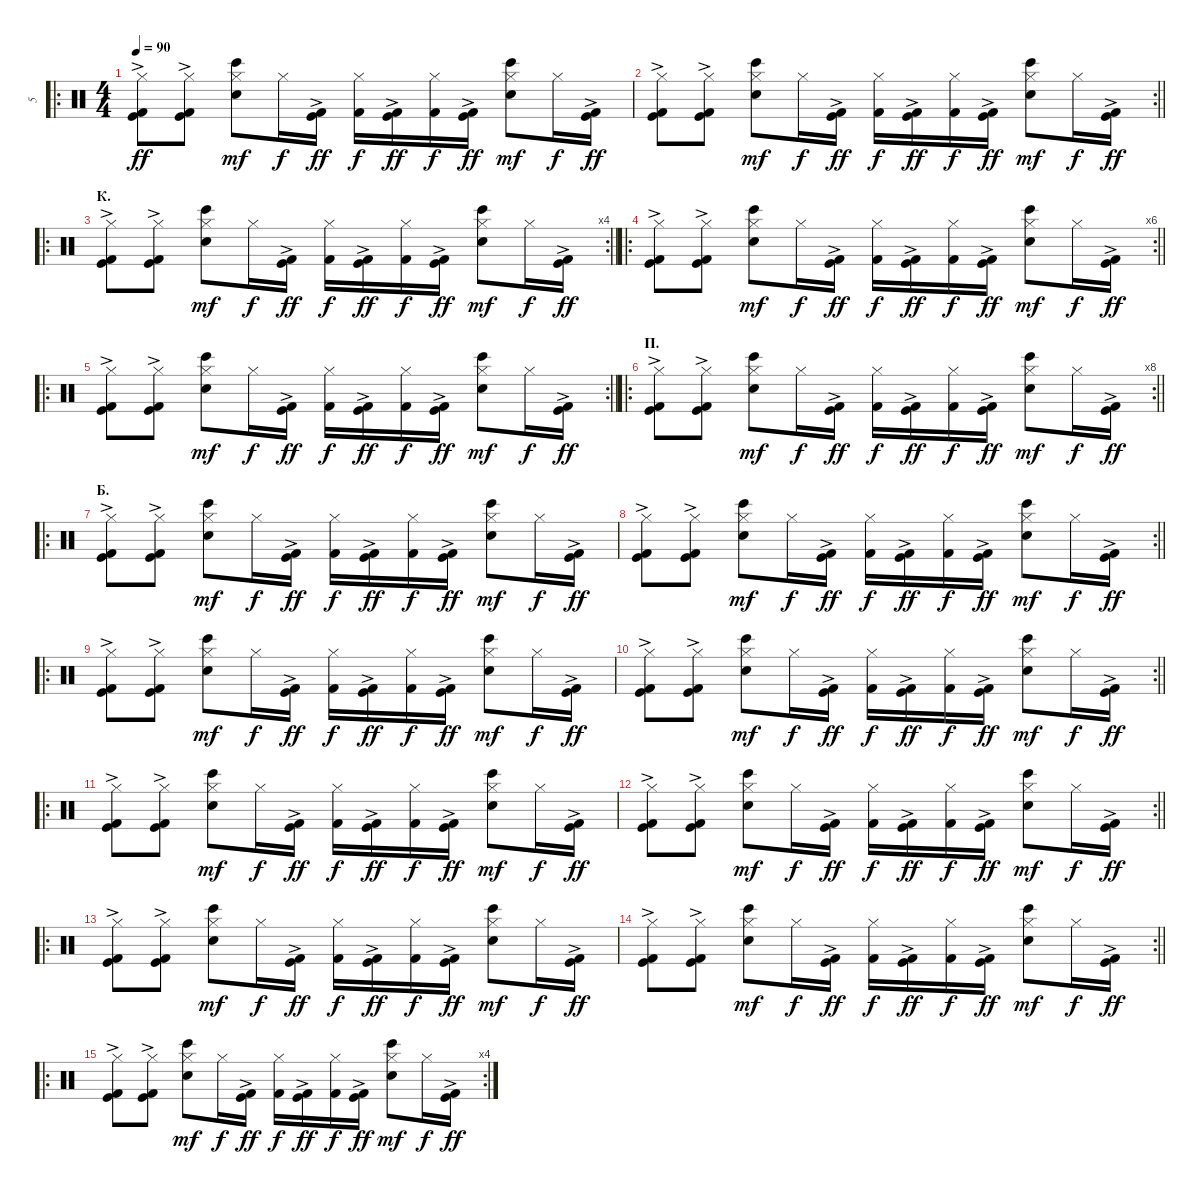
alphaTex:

\track ("5" "5") {instrument percussion}
\staff {score}
\articulation defaults
\ro
\ts (4 4)
\tempo 90
\clef neutral
\ks c
("Kick (hit) 2"{ac} "Kick (hit)"{ac} "Hi-Hat (closed)").8{dy ff} ("Kick (hit) 2"{ac} "Kick (hit)"{ac} "Hi-Hat (closed)").8 ("Snare (hit) 2" "Hi-Hat (closed)" "Bongo High (hit)").8{dy mf} "Hi-Hat (closed)".16{dy f} ("Kick (hit) 2"{ac} "Kick (hit)"{ac}).16{dy ff} ("Kick (hit) 2" "Hi-Hat (closed)").16{dy f} ("Kick (hit) 2"{ac} "Kick (hit)"{ac}).16{dy ff} ("Kick (hit) 2" "Hi-Hat (closed)").16{dy f} ("Kick (hit) 2"{ac} "Kick (hit)"{ac}).16{dy ff} ("Snare (hit) 2" "Hi-Hat (closed)" "Bongo High (hit)").8{dy mf} "Hi-Hat (closed)".16{dy f} ("Kick (hit) 2"{ac} "Kick (hit)"{ac}).16{dy ff} |
\rc 2
\barLineRight lightlight
("Kick (hit) 2"{ac} "Kick (hit)"{ac} "Hi-Hat (closed)").8 ("Kick (hit) 2"{ac} "Kick (hit)"{ac} "Hi-Hat (closed)").8 ("Snare (hit) 2" "Hi-Hat (closed)" "Bongo High (hit)").8{dy mf} "Hi-Hat (closed)".16{dy f} ("Kick (hit) 2"{ac} "Kick (hit)"{ac}).16{dy ff} ("Kick (hit) 2" "Hi-Hat (closed)").16{dy f} ("Kick (hit) 2"{ac} "Kick (hit)"{ac}).16{dy ff} ("Kick (hit) 2" "Hi-Hat (closed)").16{dy f} ("Kick (hit) 2"{ac} "Kick (hit)"{ac}).16{dy ff} ("Snare (hit) 2" "Hi-Hat (closed)" "Bongo High (hit)").8{dy mf} "Hi-Hat (closed)".16{dy f} ("Kick (hit) 2"{ac} "Kick (hit)"{ac}).16{dy ff} |
\ro
\rc 4
\section ("" "К.")
\barLineRight lightlight
("Kick (hit) 2"{ac} "Kick (hit)"{ac} "Hi-Hat (closed)").8 ("Kick (hit) 2"{ac} "Kick (hit)"{ac} "Hi-Hat (closed)").8 ("Snare (hit) 2" "Hi-Hat (closed)" "Bongo High (hit)").8{dy mf} "Hi-Hat (closed)".16{dy f} ("Kick (hit) 2"{ac} "Kick (hit)"{ac}).16{dy ff} ("Kick (hit) 2" "Hi-Hat (closed)").16{dy f} ("Kick (hit) 2"{ac} "Kick (hit)"{ac}).16{dy ff} ("Kick (hit) 2" "Hi-Hat (closed)").16{dy f} ("Kick (hit) 2"{ac} "Kick (hit)"{ac}).16{dy ff} ("Snare (hit) 2" "Hi-Hat (closed)" "Bongo High (hit)").8{dy mf} "Hi-Hat (closed)".16{dy f} ("Kick (hit) 2"{ac} "Kick (hit)"{ac}).16{dy ff} |
\ro
\rc 6
\barLineRight lightlight
("Kick (hit) 2"{ac} "Kick (hit)"{ac} "Hi-Hat (closed)").8 ("Kick (hit) 2"{ac} "Kick (hit)"{ac} "Hi-Hat (closed)").8 ("Snare (hit) 2" "Hi-Hat (closed)" "Bongo High (hit)").8{dy mf} "Hi-Hat (closed)".16{dy f} ("Kick (hit) 2"{ac} "Kick (hit)"{ac}).16{dy ff} ("Kick (hit) 2" "Hi-Hat (closed)").16{dy f} ("Kick (hit) 2"{ac} "Kick (hit)"{ac}).16{dy ff} ("Kick (hit) 2" "Hi-Hat (closed)").16{dy f} ("Kick (hit) 2"{ac} "Kick (hit)"{ac}).16{dy ff} ("Snare (hit) 2" "Hi-Hat (closed)" "Bongo High (hit)").8{dy mf} "Hi-Hat (closed)".16{dy f} ("Kick (hit) 2"{ac} "Kick (hit)"{ac}).16{dy ff} |
\ro
\rc 2
\barLineRight lightlight
("Kick (hit) 2"{ac} "Kick (hit)"{ac} "Hi-Hat (closed)").8 ("Kick (hit) 2"{ac} "Kick (hit)"{ac} "Hi-Hat (closed)").8 ("Snare (hit) 2" "Hi-Hat (closed)" "Bongo High (hit)").8{dy mf} "Hi-Hat (closed)".16{dy f} ("Kick (hit) 2"{ac} "Kick (hit)"{ac}).16{dy ff} ("Kick (hit) 2" "Hi-Hat (closed)").16{dy f} ("Kick (hit) 2"{ac} "Kick (hit)"{ac}).16{dy ff} ("Kick (hit) 2" "Hi-Hat (closed)").16{dy f} ("Kick (hit) 2"{ac} "Kick (hit)"{ac}).16{dy ff} ("Snare (hit) 2" "Hi-Hat (closed)" "Bongo High (hit)").8{dy mf} "Hi-Hat (closed)".16{dy f} ("Kick (hit) 2"{ac} "Kick (hit)"{ac}).16{dy ff} |
\ro
\rc 8
\section ("" "П.")
\barLineRight lightlight
("Kick (hit) 2"{ac} "Kick (hit)"{ac} "Hi-Hat (closed)").8 ("Kick (hit) 2"{ac} "Kick (hit)"{ac} "Hi-Hat (closed)").8 ("Snare (hit) 2" "Hi-Hat (closed)" "Bongo High (hit)").8{dy mf} "Hi-Hat (closed)".16{dy f} ("Kick (hit) 2"{ac} "Kick (hit)"{ac}).16{dy ff} ("Kick (hit) 2" "Hi-Hat (closed)").16{dy f} ("Kick (hit) 2"{ac} "Kick (hit)"{ac}).16{dy ff} ("Kick (hit) 2" "Hi-Hat (closed)").16{dy f} ("Kick (hit) 2"{ac} "Kick (hit)"{ac}).16{dy ff} ("Snare (hit) 2" "Hi-Hat (closed)" "Bongo High (hit)").8{dy mf} "Hi-Hat (closed)".16{dy f} ("Kick (hit) 2"{ac} "Kick (hit)"{ac}).16{dy ff} |
\ro
\section ("" "Б.")
("Kick (hit) 2"{ac} "Kick (hit)"{ac} "Hi-Hat (closed)").8 ("Kick (hit) 2"{ac} "Kick (hit)"{ac} "Hi-Hat (closed)").8 ("Snare (hit) 2" "Hi-Hat (closed)" "Bongo High (hit)").8{dy mf} "Hi-Hat (closed)".16{dy f} ("Kick (hit) 2"{ac} "Kick (hit)"{ac}).16{dy ff} ("Kick (hit) 2" "Hi-Hat (closed)").16{dy f} ("Kick (hit) 2"{ac} "Kick (hit)"{ac}).16{dy ff} ("Kick (hit) 2" "Hi-Hat (closed)").16{dy f} ("Kick (hit) 2"{ac} "Kick (hit)"{ac}).16{dy ff} ("Snare (hit) 2" "Hi-Hat (closed)" "Bongo High (hit)").8{dy mf} "Hi-Hat (closed)".16{dy f} ("Kick (hit) 2"{ac} "Kick (hit)"{ac}).16{dy ff} |
\rc 2
\barLineRight lightlight
("Kick (hit) 2"{ac} "Kick (hit)"{ac} "Hi-Hat (closed)").8 ("Kick (hit) 2"{ac} "Kick (hit)"{ac} "Hi-Hat (closed)").8 ("Snare (hit) 2" "Hi-Hat (closed)" "Bongo High (hit)").8{dy mf} "Hi-Hat (closed)".16{dy f} ("Kick (hit) 2"{ac} "Kick (hit)"{ac}).16{dy ff} ("Kick (hit) 2" "Hi-Hat (closed)").16{dy f} ("Kick (hit) 2"{ac} "Kick (hit)"{ac}).16{dy ff} ("Kick (hit) 2" "Hi-Hat (closed)").16{dy f} ("Kick (hit) 2"{ac} "Kick (hit)"{ac}).16{dy ff} ("Snare (hit) 2" "Hi-Hat (closed)" "Bongo High (hit)").8{dy mf} "Hi-Hat (closed)".16{dy f} ("Kick (hit) 2"{ac} "Kick (hit)"{ac}).16{dy ff} |
\ro
("Kick (hit) 2"{ac} "Kick (hit)"{ac} "Hi-Hat (closed)").8 ("Kick (hit) 2"{ac} "Kick (hit)"{ac} "Hi-Hat (closed)").8 ("Snare (hit) 2" "Hi-Hat (closed)" "Bongo High (hit)").8{dy mf} "Hi-Hat (closed)".16{dy f} ("Kick (hit) 2"{ac} "Kick (hit)"{ac}).16{dy ff} ("Kick (hit) 2" "Hi-Hat (closed)").16{dy f} ("Kick (hit) 2"{ac} "Kick (hit)"{ac}).16{dy ff} ("Kick (hit) 2" "Hi-Hat (closed)").16{dy f} ("Kick (hit) 2"{ac} "Kick (hit)"{ac}).16{dy ff} ("Snare (hit) 2" "Hi-Hat (closed)" "Bongo High (hit)").8{dy mf} "Hi-Hat (closed)".16{dy f} ("Kick (hit) 2"{ac} "Kick (hit)"{ac}).16{dy ff} |
\rc 2
\barLineRight lightlight
("Kick (hit) 2"{ac} "Kick (hit)"{ac} "Hi-Hat (closed)").8 ("Kick (hit) 2"{ac} "Kick (hit)"{ac} "Hi-Hat (closed)").8 ("Snare (hit) 2" "Hi-Hat (closed)" "Bongo High (hit)").8{dy mf} "Hi-Hat (closed)".16{dy f} ("Kick (hit) 2"{ac} "Kick (hit)"{ac}).16{dy ff} ("Kick (hit) 2" "Hi-Hat (closed)").16{dy f} ("Kick (hit) 2"{ac} "Kick (hit)"{ac}).16{dy ff} ("Kick (hit) 2" "Hi-Hat (closed)").16{dy f} ("Kick (hit) 2"{ac} "Kick (hit)"{ac}).16{dy ff} ("Snare (hit) 2" "Hi-Hat (closed)" "Bongo High (hit)").8{dy mf} "Hi-Hat (closed)".16{dy f} ("Kick (hit) 2"{ac} "Kick (hit)"{ac}).16{dy ff} |
\ro
("Kick (hit) 2"{ac} "Kick (hit)"{ac} "Hi-Hat (closed)").8 ("Kick (hit) 2"{ac} "Kick (hit)"{ac} "Hi-Hat (closed)").8 ("Snare (hit) 2" "Hi-Hat (closed)" "Bongo High (hit)").8{dy mf} "Hi-Hat (closed)".16{dy f} ("Kick (hit) 2"{ac} "Kick (hit)"{ac}).16{dy ff} ("Kick (hit) 2" "Hi-Hat (closed)").16{dy f} ("Kick (hit) 2"{ac} "Kick (hit)"{ac}).16{dy ff} ("Kick (hit) 2" "Hi-Hat (closed)").16{dy f} ("Kick (hit) 2"{ac} "Kick (hit)"{ac}).16{dy ff} ("Snare (hit) 2" "Hi-Hat (closed)" "Bongo High (hit)").8{dy mf} "Hi-Hat (closed)".16{dy f} ("Kick (hit) 2"{ac} "Kick (hit)"{ac}).16{dy ff} |
\rc 2
\barLineRight lightlight
("Kick (hit) 2"{ac} "Kick (hit)"{ac} "Hi-Hat (closed)").8 ("Kick (hit) 2"{ac} "Kick (hit)"{ac} "Hi-Hat (closed)").8 ("Snare (hit) 2" "Hi-Hat (closed)" "Bongo High (hit)").8{dy mf} "Hi-Hat (closed)".16{dy f} ("Kick (hit) 2"{ac} "Kick (hit)"{ac}).16{dy ff} ("Kick (hit) 2" "Hi-Hat (closed)").16{dy f} ("Kick (hit) 2"{ac} "Kick (hit)"{ac}).16{dy ff} ("Kick (hit) 2" "Hi-Hat (closed)").16{dy f} ("Kick (hit) 2"{ac} "Kick (hit)"{ac}).16{dy ff} ("Snare (hit) 2" "Hi-Hat (closed)" "Bongo High (hit)").8{dy mf} "Hi-Hat (closed)".16{dy f} ("Kick (hit) 2"{ac} "Kick (hit)"{ac}).16{dy ff} |
\ro
("Kick (hit) 2"{ac} "Kick (hit)"{ac} "Hi-Hat (closed)").8 ("Kick (hit) 2"{ac} "Kick (hit)"{ac} "Hi-Hat (closed)").8 ("Snare (hit) 2" "Hi-Hat (closed)" "Bongo High (hit)").8{dy mf} "Hi-Hat (closed)".16{dy f} ("Kick (hit) 2"{ac} "Kick (hit)"{ac}).16{dy ff} ("Kick (hit) 2" "Hi-Hat (closed)").16{dy f} ("Kick (hit) 2"{ac} "Kick (hit)"{ac}).16{dy ff} ("Kick (hit) 2" "Hi-Hat (closed)").16{dy f} ("Kick (hit) 2"{ac} "Kick (hit)"{ac}).16{dy ff} ("Snare (hit) 2" "Hi-Hat (closed)" "Bongo High (hit)").8{dy mf} "Hi-Hat (closed)".16{dy f} ("Kick (hit) 2"{ac} "Kick (hit)"{ac}).16{dy ff} |
\rc 2
\barLineRight lightlight
("Kick (hit) 2"{ac} "Kick (hit)"{ac} "Hi-Hat (closed)").8 ("Kick (hit) 2"{ac} "Kick (hit)"{ac} "Hi-Hat (closed)").8 ("Snare (hit) 2" "Hi-Hat (closed)" "Bongo High (hit)").8{dy mf} "Hi-Hat (closed)".16{dy f} ("Kick (hit) 2"{ac} "Kick (hit)"{ac}).16{dy ff} ("Kick (hit) 2" "Hi-Hat (closed)").16{dy f} ("Kick (hit) 2"{ac} "Kick (hit)"{ac}).16{dy ff} ("Kick (hit) 2" "Hi-Hat (closed)").16{dy f} ("Kick (hit) 2"{ac} "Kick (hit)"{ac}).16{dy ff} ("Snare (hit) 2" "Hi-Hat (closed)" "Bongo High (hit)").8{dy mf} "Hi-Hat (closed)".16{dy f} ("Kick (hit) 2"{ac} "Kick (hit)"{ac}).16{dy ff} |
\ro
\rc 4
("Kick (hit) 2"{ac} "Kick (hit)"{ac} "Hi-Hat (closed)").8 ("Kick (hit) 2"{ac} "Kick (hit)"{ac} "Hi-Hat (closed)").8 ("Snare (hit) 2" "Hi-Hat (closed)" "Bongo High (hit)").8{dy mf} "Hi-Hat (closed)".16{dy f} ("Kick (hit) 2"{ac} "Kick (hit)"{ac}).16{dy ff} ("Kick (hit) 2" "Hi-Hat (closed)").16{dy f} ("Kick (hit) 2"{ac} "Kick (hit)"{ac}).16{dy ff} ("Kick (hit) 2" "Hi-Hat (closed)").16{dy f} ("Kick (hit) 2"{ac} "Kick (hit)"{ac}).16{dy ff} ("Snare (hit) 2" "Hi-Hat (closed)" "Bongo High (hit)").8{dy mf} "Hi-Hat (closed)".16{dy f} ("Kick (hit) 2"{ac} "Kick (hit)"{ac}).16{dy ff}
